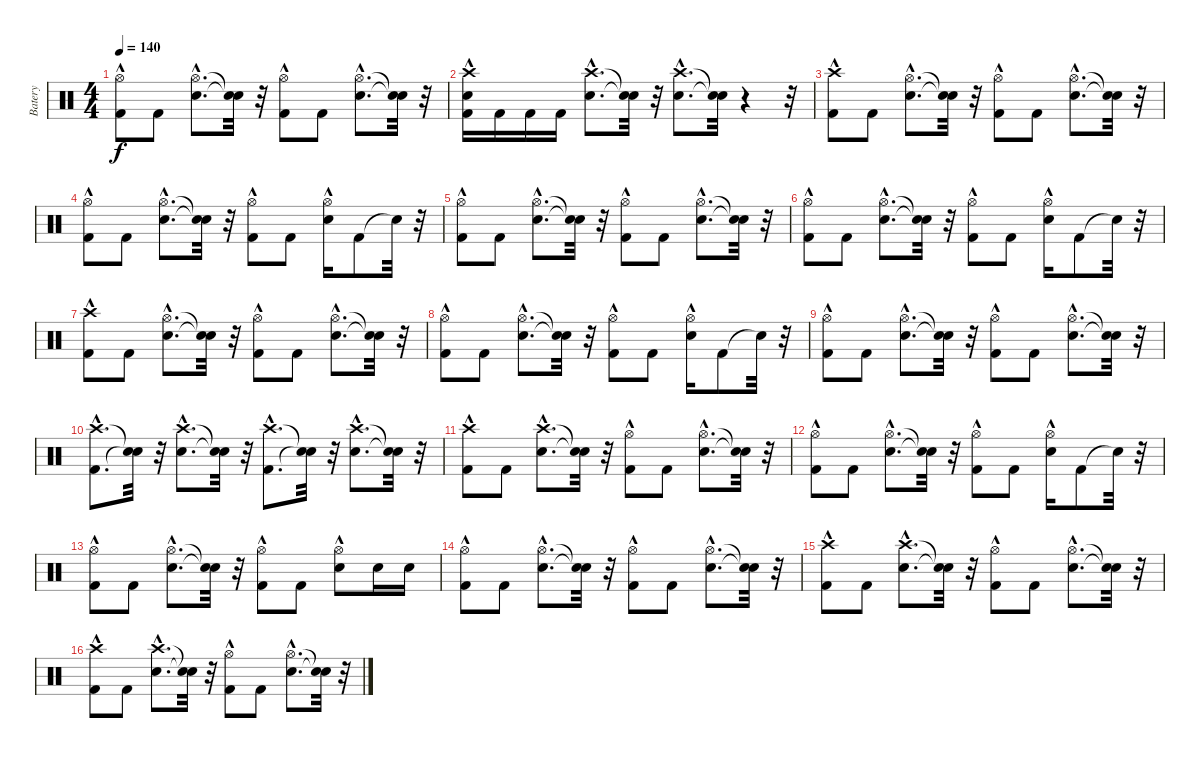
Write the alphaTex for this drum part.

\track ("Batery" "Batery") {instrument percussion}
\staff {score}
\articulation defaults
\ts (4 4)
\tempo 140
\clef neutral
\ks c
("Hi-Hat (open)"{hac} "Kick (hit) 2").8{dy f} "Kick (hit) 2".8 ("Hi-Hat (open)"{hac} "Snare (hit) 2"{hac}).8{d} ("Snare (hit)"{t} "Snare (hit)"{t}).32 r.32 ("Hi-Hat (open)"{hac} "Kick (hit) 2").8 "Kick (hit) 2".8 ("Hi-Hat (open)"{hac} "Snare (hit) 2"{hac}).8{d} ("Snare (hit)"{t} "Snare (hit)"{t}).32 r.32 |
("Kick (hit) 2" "Snare (hit) 2"{hac} "Crash high (hit)"{hac}).16 "Kick (hit) 2".16 "Kick (hit) 2".16 "Kick (hit) 2".16 ("Snare (hit) 2"{hac} "Crash high (hit)"{hac}).8{d} ("Snare (hit)"{t} "Snare (hit)"{t}).32 r.32 ("Snare (hit) 2"{hac} "Crash high (hit)"{hac}).8{d} ("Snare (hit)"{t} "Snare (hit)"{t}).32 r.4 r.32 |
("Kick (hit) 2" "Crash high (hit)"{hac}).8 "Kick (hit) 2".8 ("Snare (hit) 2"{hac} "Hi-Hat (open)"{hac}).8{d} ("Snare (hit)"{t} "Snare (hit)"{t}).32 r.32 ("Kick (hit) 2" "Hi-Hat (open)"{hac}).8 "Kick (hit) 2".8 ("Hi-Hat (open)"{hac} "Snare (hit) 2"{hac}).8{d} ("Snare (hit)"{t} "Snare (hit)"{t}).32 r.32 |
("Kick (hit) 2" "Hi-Hat (open)"{hac}).8 "Kick (hit) 2".8 ("Snare (hit) 2"{hac} "Hi-Hat (open)"{hac}).8{d} ("Snare (hit)"{t} "Snare (hit)"{t}).32 r.32 ("Kick (hit) 2" "Hi-Hat (open)"{hac}).8 "Kick (hit) 2".8 ("Hi-Hat (open)"{hac} "Snare (hit) 2"{hac}).16 "Kick (hit) 2".8 "Snare (hit)"{t}.32 r.32 |
("Kick (hit) 2" "Hi-Hat (open)"{hac}).8 "Kick (hit) 2".8 ("Snare (hit) 2"{hac} "Hi-Hat (open)"{hac}).8{d} ("Snare (hit)"{t} "Snare (hit)"{t}).32 r.32 ("Kick (hit) 2" "Hi-Hat (open)"{hac}).8 "Kick (hit) 2".8 ("Hi-Hat (open)"{hac} "Snare (hit) 2"{hac}).8{d} ("Snare (hit)"{t} "Snare (hit)"{t}).32 r.32 |
("Kick (hit) 2" "Hi-Hat (open)"{hac}).8 "Kick (hit) 2".8 ("Snare (hit) 2"{hac} "Hi-Hat (open)"{hac}).8{d} ("Snare (hit)"{t} "Snare (hit)"{t}).32 r.32 ("Kick (hit) 2" "Hi-Hat (open)"{hac}).8 "Kick (hit) 2".8 ("Hi-Hat (open)"{hac} "Snare (hit) 2"{hac}).16 "Kick (hit) 2".8 "Snare (hit)"{t}.32 r.32 |
("Kick (hit) 2" "Crash high (hit)"{hac}).8 "Kick (hit) 2".8 ("Snare (hit) 2"{hac} "Hi-Hat (open)"{hac}).8{d} ("Snare (hit)"{t} "Snare (hit)"{t}).32 r.32 ("Kick (hit) 2" "Hi-Hat (open)"{hac}).8 "Kick (hit) 2".8 ("Hi-Hat (open)"{hac} "Snare (hit) 2"{hac}).8{d} ("Snare (hit)"{t} "Snare (hit)"{t}).32 r.32 |
("Kick (hit) 2" "Hi-Hat (open)"{hac}).8 "Kick (hit) 2".8 ("Snare (hit) 2"{hac} "Hi-Hat (open)"{hac}).8{d} ("Snare (hit)"{t} "Snare (hit)"{t}).32 r.32 ("Kick (hit) 2" "Hi-Hat (open)"{hac}).8 "Kick (hit) 2".8 ("Hi-Hat (open)"{hac} "Snare (hit) 2"{hac}).16 "Kick (hit) 2".8 "Snare (hit)"{t}.32 r.32 |
("Kick (hit) 2" "Hi-Hat (open)"{hac}).8 "Kick (hit) 2".8 ("Snare (hit) 2"{hac} "Hi-Hat (open)"{hac}).8{d} ("Snare (hit)"{t} "Snare (hit)"{t}).32 r.32 ("Kick (hit) 2" "Hi-Hat (open)"{hac}).8 "Kick (hit) 2".8 ("Hi-Hat (open)"{hac} "Snare (hit) 2"{hac}).8{d} ("Snare (hit)"{t} "Snare (hit)"{t}).32 r.32 |
("Crash high (hit)"{hac} "Kick (hit) 2"{hac}).8{d} ("Snare (hit)"{t} "Snare (hit)"{t}).32 r.32 ("Snare (hit) 2"{hac} "Crash high (hit)"{hac}).8{d} ("Snare (hit)"{t} "Snare (hit)"{t}).32 r.32 ("Crash high (hit)"{hac} "Kick (hit) 2"{hac}).8{d} ("Snare (hit)"{t} "Snare (hit)"{t}).32 r.32 ("Crash high (hit)"{hac} "Snare (hit) 2"{hac}).8{d} ("Snare (hit)"{t} "Snare (hit)"{t}).32 r.32 |
("Kick (hit) 2" "Crash high (hit)"{hac}).8 "Kick (hit) 2".8 ("Snare (hit) 2"{hac} "Crash high (hit)"{hac}).8{d} ("Snare (hit)"{t} "Snare (hit)"{t}).32 r.32 ("Kick (hit) 2" "Hi-Hat (open)"{hac}).8 "Kick (hit) 2".8 ("Hi-Hat (open)"{hac} "Snare (hit) 2"{hac}).8{d} ("Snare (hit)"{t} "Snare (hit)"{t}).32 r.32 |
("Kick (hit) 2" "Hi-Hat (open)"{hac}).8 "Kick (hit) 2".8 ("Snare (hit) 2"{hac} "Hi-Hat (open)"{hac}).8{d} ("Snare (hit)"{t} "Snare (hit)"{t}).32 r.32 ("Kick (hit) 2" "Hi-Hat (open)"{hac}).8 "Kick (hit) 2".8 ("Hi-Hat (open)"{hac} "Snare (hit) 2"{hac}).16 "Kick (hit) 2".8 "Snare (hit)"{t}.32 r.32 |
("Kick (hit) 2" "Hi-Hat (open)"{hac}).8 "Kick (hit) 2".8 ("Snare (hit) 2"{hac} "Hi-Hat (open)"{hac}).8{d} ("Snare (hit)"{t} "Snare (hit)"{t}).32 r.32 ("Kick (hit) 2" "Hi-Hat (open)"{hac}).8 "Kick (hit) 2".8 ("Hi-Hat (open)"{hac} "Snare (hit) 2").8 "Snare (hit) 2".16 "Snare (hit) 2".16 |
("Kick (hit) 2" "Hi-Hat (open)"{hac}).8 "Kick (hit) 2".8 ("Snare (hit) 2"{hac} "Hi-Hat (open)"{hac}).8{d} ("Snare (hit)"{t} "Snare (hit)"{t}).32 r.32 ("Kick (hit) 2" "Hi-Hat (open)"{hac}).8 "Kick (hit) 2".8 ("Hi-Hat (open)"{hac} "Snare (hit) 2"{hac}).8{d} ("Snare (hit)"{t} "Snare (hit)"{t}).32 r.32 |
("Kick (hit) 2" "Crash high (hit)"{hac}).8 "Kick (hit) 2".8 ("Snare (hit) 2"{hac} "Crash high (hit)"{hac}).8{d} ("Snare (hit)"{t} "Snare (hit)"{t}).32 r.32 ("Kick (hit) 2" "Hi-Hat (open)"{hac}).8 "Kick (hit) 2".8 ("Hi-Hat (open)"{hac} "Snare (hit) 2"{hac}).8{d} ("Snare (hit)"{t} "Snare (hit)"{t}).32 r.32 |
("Kick (hit) 2" "Crash high (hit)"{hac}).8 "Kick (hit) 2".8 ("Snare (hit) 2"{hac} "Crash high (hit)"{hac}).8{d} ("Snare (hit)"{t} "Snare (hit)"{t}).32 r.32 ("Kick (hit) 2" "Hi-Hat (open)"{hac}).8 "Kick (hit) 2".8 ("Hi-Hat (open)"{hac} "Snare (hit) 2"{hac}).8{d} ("Snare (hit)"{t} "Snare (hit)"{t}).32 r.32
